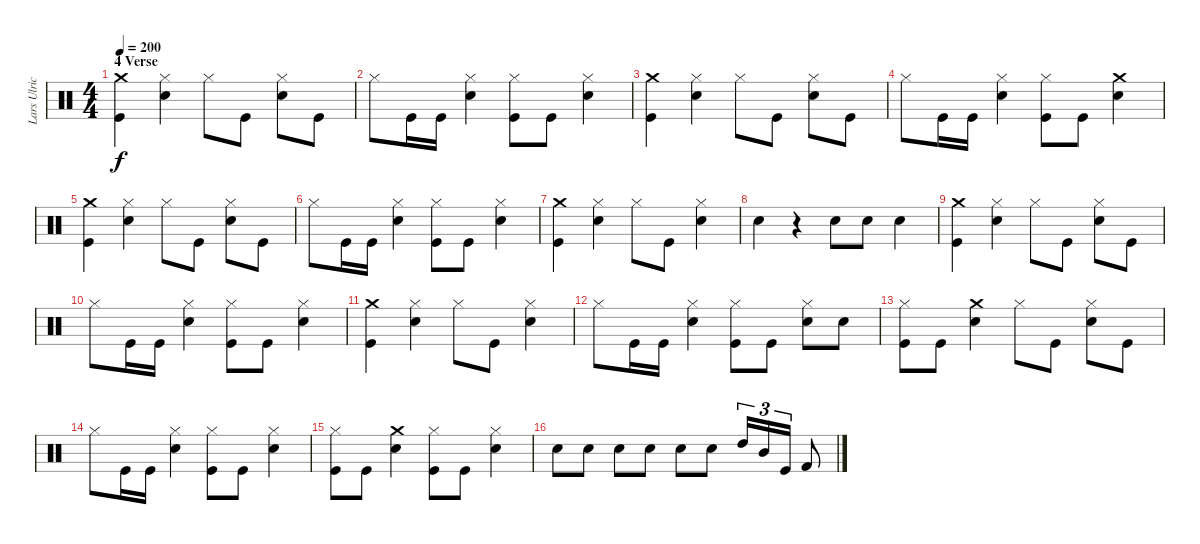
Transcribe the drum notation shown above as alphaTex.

\track ("Lars Ulrich (Drums)" "Lars Ulric") {instrument percussion}
\staff {score}
\articulation defaults
\ts (4 4)
\section ("" "4 Verse")
\tempo 200
\clef neutral
\ks c
("Kick (hit)" "Crash medium (hit)").4{dy f} ("Snare (hit) 2" "Hi-Hat (closed)").4 "Hi-Hat (closed)".8 "Kick (hit)".8 ("Snare (hit) 2" "Hi-Hat (closed)").8 "Kick (hit)".8 |
"Hi-Hat (closed)".8 "Kick (hit)".16 "Kick (hit)".16 ("Snare (hit) 2" "Hi-Hat (closed)").4 ("Kick (hit)" "Hi-Hat (closed)").8 "Kick (hit)".8 ("Snare (hit) 2" "Hi-Hat (closed)").4 |
("Kick (hit)" "Crash medium (hit)").4 ("Hi-Hat (closed)" "Snare (hit) 2").4 "Hi-Hat (closed)".8 "Kick (hit)".8 ("Snare (hit) 2" "Hi-Hat (closed)").8 "Kick (hit)".8 |
"Hi-Hat (closed)".8 "Kick (hit)".16 "Kick (hit)".16 ("Snare (hit) 2" "Hi-Hat (closed)").4 ("Kick (hit)" "Hi-Hat (closed)").8 "Kick (hit)".8 ("Crash medium (hit)" "Snare (hit) 2").4 |
("Kick (hit)" "Crash medium (hit)").4 ("Hi-Hat (closed)" "Snare (hit) 2").4 "Hi-Hat (closed)".8 "Kick (hit)".8 ("Snare (hit) 2" "Hi-Hat (closed)").8 "Kick (hit)".8 |
"Hi-Hat (closed)".8 "Kick (hit)".16 "Kick (hit)".16 ("Snare (hit) 2" "Hi-Hat (closed)").4 ("Kick (hit)" "Hi-Hat (closed)").8 "Kick (hit)".8 ("Snare (hit) 2" "Hi-Hat (closed)").4 |
("Kick (hit)" "Crash medium (hit)").4 ("Hi-Hat (closed)" "Snare (hit) 2").4 "Hi-Hat (closed)".8 "Kick (hit)".8 ("Snare (hit) 2" "Hi-Hat (closed)").4 |
"Snare (hit) 2".4 r.4 "Snare (hit) 2".8 "Snare (hit) 2".8 "Snare (hit) 2".4 |
("Kick (hit)" "Crash medium (hit)").4 ("Hi-Hat (closed)" "Snare (hit) 2").4 "Hi-Hat (closed)".8 "Kick (hit)".8 ("Snare (hit) 2" "Hi-Hat (closed)").8 "Kick (hit)".8 |
"Hi-Hat (closed)".8 "Kick (hit)".16 "Kick (hit)".16 ("Snare (hit) 2" "Hi-Hat (closed)").4 ("Kick (hit)" "Hi-Hat (closed)").8 "Kick (hit)".8 ("Snare (hit) 2" "Hi-Hat (closed)").4 |
("Kick (hit)" "Crash medium (hit)").4 ("Hi-Hat (closed)" "Snare (hit) 2").4 "Hi-Hat (closed)".8 "Kick (hit)".8 ("Snare (hit) 2" "Hi-Hat (closed)").4 |
"Hi-Hat (closed)".8 "Kick (hit)".16 "Kick (hit)".16 ("Snare (hit) 2" "Hi-Hat (closed)").4 ("Kick (hit)" "Hi-Hat (closed)").8 "Kick (hit)".8 ("Snare (hit) 2" "Hi-Hat (closed)").8 "Snare (hit) 2".8 |
("Kick (hit)" "Hi-Hat (closed)").8 "Kick (hit)".8 ("Crash medium (hit)" "Snare (hit) 2").4 "Hi-Hat (closed)".8 "Kick (hit)".8 ("Snare (hit) 2" "Hi-Hat (closed)").8 "Kick (hit)".8 |
"Hi-Hat (closed)".8 "Kick (hit)".16 "Kick (hit)".16 ("Snare (hit) 2" "Hi-Hat (closed)").4 ("Kick (hit)" "Hi-Hat (closed)").8 "Kick (hit)".8 ("Snare (hit) 2" "Hi-Hat (closed)").4 |
("Kick (hit)" "Hi-Hat (closed)").8 "Kick (hit)".8 ("Snare (hit) 2" "Crash medium (hit)").4 ("Kick (hit)" "Hi-Hat (closed)").8 "Kick (hit)".8 ("Snare (hit) 2" "Hi-Hat (closed)").4 |
"Snare (hit) 2".8 "Snare (hit) 2".8 "Snare (hit) 2".8 "Snare (hit) 2".8 "Snare (hit) 2".8 "Snare (hit) 2".8 "High Tom (hit)".16{tu (3 2)} "Mid Tom (hit)".16{tu (3 2)} "Kick (hit)".16{tu (3 2)} "Kick (hit) 2".8
